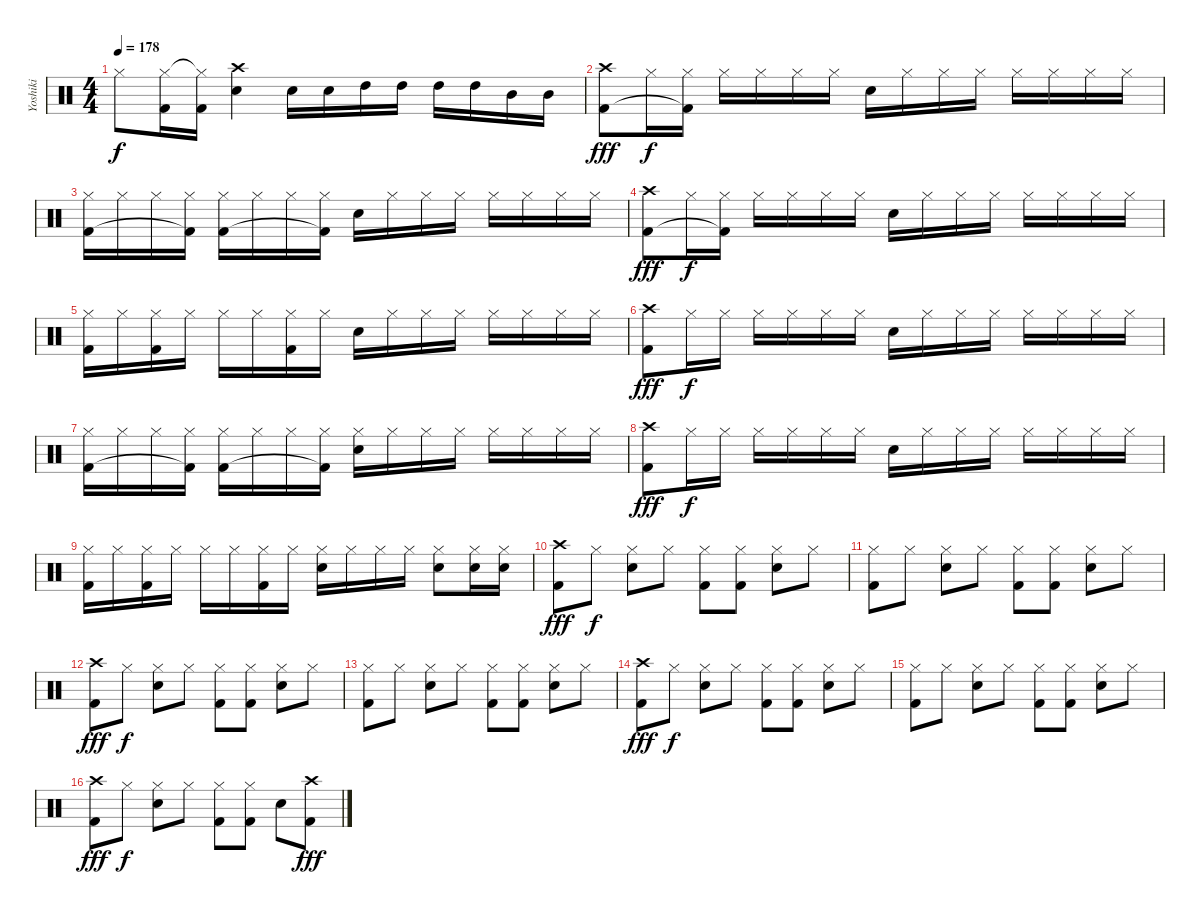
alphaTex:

\track ("Yoshiki" "Yoshiki") {instrument percussion}
\staff {score}
\articulation defaults
\ts (4 4)
\tempo 178
\clef neutral
\ks c "Hi-Hat (closed)".8{dy f}
("Hi-Hat (closed)" "Kick (hit) 2").16 ("Hi-Hat (closed)"{t} "Kick (hit) 2").16 ("Crash high (hit)" "Snare (hit) 2").4 "Snare (hit) 2".16 "Snare (hit) 2".16 "High Tom (hit)".16 "High Tom (hit)".16 "High Tom (hit)".16 "High Tom (hit)".16 "Mid Tom (hit)".16 "Mid Tom (hit)".16 |
("Crash high (hit)" "Kick (hit) 2").8{dy fff} "Hi-Hat (closed)".16{dy f} ("Hi-Hat (closed)" "Kick (hit) 2"{t}).16 "Hi-Hat (closed)".16 "Hi-Hat (closed)".16 "Hi-Hat (closed)".16 "Hi-Hat (closed)".16 "Snare (hit) 2".16 "Hi-Hat (closed)".16 "Hi-Hat (closed)".16 "Hi-Hat (closed)".16 "Hi-Hat (closed)".16 "Hi-Hat (closed)".16 "Hi-Hat (closed)".16 "Hi-Hat (closed)".16 |
("Hi-Hat (closed)" "Kick (hit) 2").16 "Hi-Hat (closed)".16 "Hi-Hat (closed)".16 ("Hi-Hat (closed)" "Kick (hit) 2"{t}).16 ("Hi-Hat (closed)" "Kick (hit) 2").16 "Hi-Hat (closed)".16 "Hi-Hat (closed)".16 ("Hi-Hat (closed)" "Kick (hit) 2"{t}).16 "Snare (hit) 2".16 "Hi-Hat (closed)".16 "Hi-Hat (closed)".16 "Hi-Hat (closed)".16 "Hi-Hat (closed)".16 "Hi-Hat (closed)".16 "Hi-Hat (closed)".16 "Hi-Hat (closed)".16 |
("Crash high (hit)" "Kick (hit) 2").8{dy fff} "Hi-Hat (closed)".16{dy f} ("Hi-Hat (closed)" "Kick (hit) 2"{t}).16 "Hi-Hat (closed)".16 "Hi-Hat (closed)".16 "Hi-Hat (closed)".16 "Hi-Hat (closed)".16 "Snare (hit) 2".16 "Hi-Hat (closed)".16 "Hi-Hat (closed)".16 "Hi-Hat (closed)".16 "Hi-Hat (closed)".16 "Hi-Hat (closed)".16 "Hi-Hat (closed)".16 "Hi-Hat (closed)".16 |
("Hi-Hat (closed)" "Kick (hit) 2").16 "Hi-Hat (closed)".16 ("Hi-Hat (closed)" "Kick (hit) 2").16 "Hi-Hat (closed)".16 "Hi-Hat (closed)".16 "Hi-Hat (closed)".16 ("Hi-Hat (closed)" "Kick (hit) 2").16 "Hi-Hat (closed)".16 "Snare (hit) 2".16 "Hi-Hat (closed)".16 "Hi-Hat (closed)".16 "Hi-Hat (closed)".16 "Hi-Hat (closed)".16 "Hi-Hat (closed)".16 "Hi-Hat (closed)".16 "Hi-Hat (closed)".16 |
("Crash high (hit)" "Kick (hit) 2").8{dy fff} "Hi-Hat (closed)".16{dy f} "Hi-Hat (closed)".16 "Hi-Hat (closed)".16 "Hi-Hat (closed)".16 "Hi-Hat (closed)".16 "Hi-Hat (closed)".16 "Snare (hit) 2".16 "Hi-Hat (closed)".16 "Hi-Hat (closed)".16 "Hi-Hat (closed)".16 "Hi-Hat (closed)".16 "Hi-Hat (closed)".16 "Hi-Hat (closed)".16 "Hi-Hat (closed)".16 |
("Hi-Hat (closed)" "Kick (hit) 2").16 "Hi-Hat (closed)".16 "Hi-Hat (closed)".16 ("Hi-Hat (closed)" "Kick (hit) 2"{t}).16 ("Hi-Hat (closed)" "Kick (hit) 2").16 "Hi-Hat (closed)".16 "Hi-Hat (closed)".16 ("Hi-Hat (closed)" "Kick (hit) 2"{t}).16 ("Hi-Hat (closed)" "Snare (hit) 2").16 "Hi-Hat (closed)".16 "Hi-Hat (closed)".16 "Hi-Hat (closed)".16 "Hi-Hat (closed)".16 "Hi-Hat (closed)".16 "Hi-Hat (closed)".16 "Hi-Hat (closed)".16 |
("Crash high (hit)" "Kick (hit) 2").8{dy fff} "Hi-Hat (closed)".16{dy f} "Hi-Hat (closed)".16 "Hi-Hat (closed)".16 "Hi-Hat (closed)".16 "Hi-Hat (closed)".16 "Hi-Hat (closed)".16 "Snare (hit) 2".16 "Hi-Hat (closed)".16 "Hi-Hat (closed)".16 "Hi-Hat (closed)".16 "Hi-Hat (closed)".16 "Hi-Hat (closed)".16 "Hi-Hat (closed)".16 "Hi-Hat (closed)".16 |
("Hi-Hat (closed)" "Kick (hit) 2").16 "Hi-Hat (closed)".16 ("Hi-Hat (closed)" "Kick (hit) 2").16 "Hi-Hat (closed)".16 "Hi-Hat (closed)".16 "Hi-Hat (closed)".16 ("Hi-Hat (closed)" "Kick (hit) 2").16 "Hi-Hat (closed)".16 ("Hi-Hat (closed)" "Snare (hit) 2").16 "Hi-Hat (closed)".16 "Hi-Hat (closed)".16 "Hi-Hat (closed)".16 ("Hi-Hat (closed)" "Snare (hit) 2").8 ("Hi-Hat (closed)" "Snare (hit) 2").16 ("Hi-Hat (closed)" "Snare (hit) 2").16 |
("Crash high (hit)" "Kick (hit) 2").8{dy fff} "Hi-Hat (closed)".8{dy f} ("Hi-Hat (closed)" "Snare (hit) 2").8 "Hi-Hat (closed)".8 ("Hi-Hat (closed)" "Kick (hit) 2").8 ("Hi-Hat (closed)" "Kick (hit) 2").8 ("Hi-Hat (closed)" "Snare (hit) 2").8 "Hi-Hat (closed)".8 |
("Hi-Hat (closed)" "Kick (hit) 2").8 "Hi-Hat (closed)".8 ("Hi-Hat (closed)" "Snare (hit) 2").8 "Hi-Hat (closed)".8 ("Hi-Hat (closed)" "Kick (hit) 2").8 ("Hi-Hat (closed)" "Kick (hit) 2").8 ("Hi-Hat (closed)" "Snare (hit) 2").8 "Hi-Hat (closed)".8 |
("Crash high (hit)" "Kick (hit) 2").8{dy fff} "Hi-Hat (closed)".8{dy f} ("Hi-Hat (closed)" "Snare (hit) 2").8 "Hi-Hat (closed)".8 ("Hi-Hat (closed)" "Kick (hit) 2").8 ("Hi-Hat (closed)" "Kick (hit) 2").8 ("Hi-Hat (closed)" "Snare (hit) 2").8 "Hi-Hat (closed)".8 |
("Hi-Hat (closed)" "Kick (hit) 2").8 "Hi-Hat (closed)".8 ("Hi-Hat (closed)" "Snare (hit) 2").8 "Hi-Hat (closed)".8 ("Hi-Hat (closed)" "Kick (hit) 2").8 ("Hi-Hat (closed)" "Kick (hit) 2").8 ("Hi-Hat (closed)" "Snare (hit) 2").8 "Hi-Hat (closed)".8 |
("Crash high (hit)" "Kick (hit) 2").8{dy fff} "Hi-Hat (closed)".8{dy f} ("Hi-Hat (closed)" "Snare (hit) 2").8 "Hi-Hat (closed)".8 ("Hi-Hat (closed)" "Kick (hit) 2").8 ("Hi-Hat (closed)" "Kick (hit) 2").8 ("Hi-Hat (closed)" "Snare (hit) 2").8 "Hi-Hat (closed)".8 |
("Hi-Hat (closed)" "Kick (hit) 2").8 "Hi-Hat (closed)".8 ("Hi-Hat (closed)" "Snare (hit) 2").8 "Hi-Hat (closed)".8 ("Hi-Hat (closed)" "Kick (hit) 2").8 ("Hi-Hat (closed)" "Kick (hit) 2").8 ("Hi-Hat (closed)" "Snare (hit) 2").8 "Hi-Hat (closed)".8 |
("Crash high (hit)" "Kick (hit) 2").8{dy fff} "Hi-Hat (closed)".8{dy f} ("Hi-Hat (closed)" "Snare (hit) 2").8 "Hi-Hat (closed)".8 ("Hi-Hat (closed)" "Kick (hit) 2").8 ("Hi-Hat (closed)" "Kick (hit) 2").8 "Snare (hit) 2".8 ("Crash high (hit)" "Kick (hit) 2").8{dy fff}
